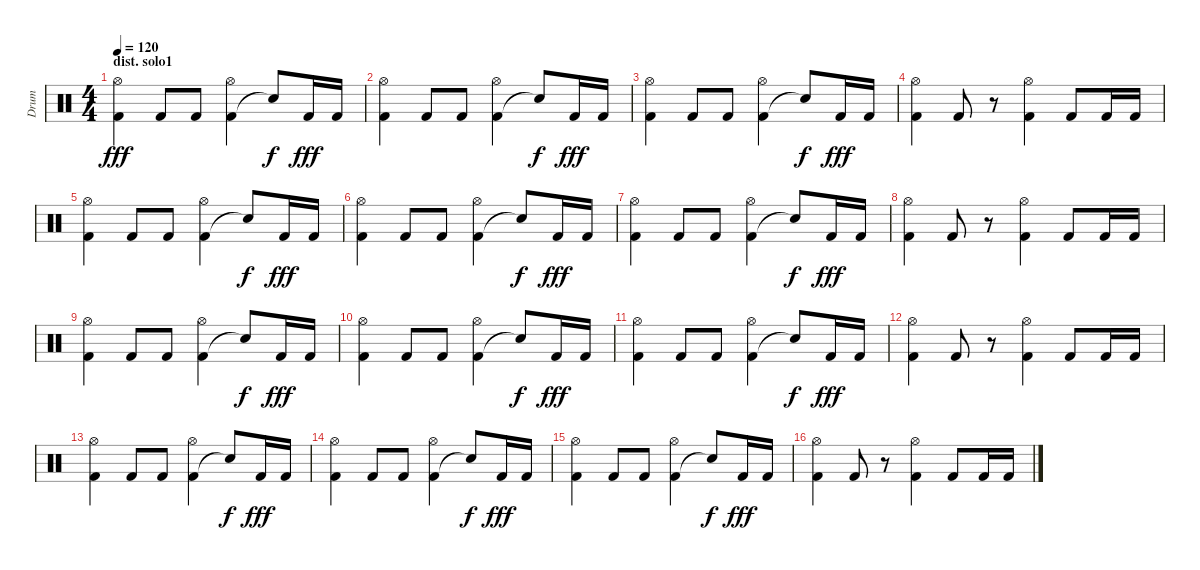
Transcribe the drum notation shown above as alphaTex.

\track ("Drum" "Drum") {instrument percussion}
\staff {score}
\articulation defaults
\ts (4 4)
\section ("" "dist. solo1")
\tempo 120
\clef neutral
\ks c
("Kick (hit) 2" "Hi-Hat (open)").4{dy fff} "Kick (hit) 2".8 "Kick (hit) 2".8 ("Kick (hit) 2" "Hi-Hat (open)").4 "Snare (hit)"{t}.8{dy f} "Kick (hit) 2".16{dy fff} "Kick (hit) 2".16 |
("Kick (hit) 2" "Hi-Hat (open)").4 "Kick (hit) 2".8 "Kick (hit) 2".8 ("Kick (hit) 2" "Hi-Hat (open)").4 "Snare (hit)"{t}.8{dy f} "Kick (hit) 2".16{dy fff} "Kick (hit) 2".16 |
("Kick (hit) 2" "Hi-Hat (open)").4 "Kick (hit) 2".8 "Kick (hit) 2".8 ("Kick (hit) 2" "Hi-Hat (open)").4 "Snare (hit)"{t}.8{dy f} "Kick (hit) 2".16{dy fff} "Kick (hit) 2".16 |
("Kick (hit) 2" "Hi-Hat (open)").4 "Kick (hit) 2".8 r.8 ("Kick (hit) 2" "Hi-Hat (open)").4 "Kick (hit) 2".8 "Kick (hit) 2".16 "Kick (hit) 2".16 |
("Kick (hit) 2" "Hi-Hat (open)").4 "Kick (hit) 2".8 "Kick (hit) 2".8 ("Kick (hit) 2" "Hi-Hat (open)").4 "Snare (hit)"{t}.8{dy f} "Kick (hit) 2".16{dy fff} "Kick (hit) 2".16 |
("Kick (hit) 2" "Hi-Hat (open)").4 "Kick (hit) 2".8 "Kick (hit) 2".8 ("Kick (hit) 2" "Hi-Hat (open)").4 "Snare (hit)"{t}.8{dy f} "Kick (hit) 2".16{dy fff} "Kick (hit) 2".16 |
("Kick (hit) 2" "Hi-Hat (open)").4 "Kick (hit) 2".8 "Kick (hit) 2".8 ("Kick (hit) 2" "Hi-Hat (open)").4 "Snare (hit)"{t}.8{dy f} "Kick (hit) 2".16{dy fff} "Kick (hit) 2".16 |
("Kick (hit) 2" "Hi-Hat (open)").4 "Kick (hit) 2".8 r.8 ("Kick (hit) 2" "Hi-Hat (open)").4 "Kick (hit) 2".8 "Kick (hit) 2".16 "Kick (hit) 2".16 |
("Kick (hit) 2" "Hi-Hat (open)").4 "Kick (hit) 2".8 "Kick (hit) 2".8 ("Kick (hit) 2" "Hi-Hat (open)").4 "Snare (hit)"{t}.8{dy f} "Kick (hit) 2".16{dy fff} "Kick (hit) 2".16 |
("Kick (hit) 2" "Hi-Hat (open)").4 "Kick (hit) 2".8 "Kick (hit) 2".8 ("Kick (hit) 2" "Hi-Hat (open)").4 "Snare (hit)"{t}.8{dy f} "Kick (hit) 2".16{dy fff} "Kick (hit) 2".16 |
("Kick (hit) 2" "Hi-Hat (open)").4 "Kick (hit) 2".8 "Kick (hit) 2".8 ("Kick (hit) 2" "Hi-Hat (open)").4 "Snare (hit)"{t}.8{dy f} "Kick (hit) 2".16{dy fff} "Kick (hit) 2".16 |
("Kick (hit) 2" "Hi-Hat (open)").4 "Kick (hit) 2".8 r.8 ("Kick (hit) 2" "Hi-Hat (open)").4 "Kick (hit) 2".8 "Kick (hit) 2".16 "Kick (hit) 2".16 |
("Kick (hit) 2" "Hi-Hat (open)").4 "Kick (hit) 2".8 "Kick (hit) 2".8 ("Kick (hit) 2" "Hi-Hat (open)").4 "Snare (hit)"{t}.8{dy f} "Kick (hit) 2".16{dy fff} "Kick (hit) 2".16 |
("Kick (hit) 2" "Hi-Hat (open)").4 "Kick (hit) 2".8 "Kick (hit) 2".8 ("Kick (hit) 2" "Hi-Hat (open)").4 "Snare (hit)"{t}.8{dy f} "Kick (hit) 2".16{dy fff} "Kick (hit) 2".16 |
("Kick (hit) 2" "Hi-Hat (open)").4 "Kick (hit) 2".8 "Kick (hit) 2".8 ("Kick (hit) 2" "Hi-Hat (open)").4 "Snare (hit)"{t}.8{dy f} "Kick (hit) 2".16{dy fff} "Kick (hit) 2".16 |
("Kick (hit) 2" "Hi-Hat (open)").4 "Kick (hit) 2".8 r.8 ("Kick (hit) 2" "Hi-Hat (open)").4 "Kick (hit) 2".8 "Kick (hit) 2".16 "Kick (hit) 2".16
